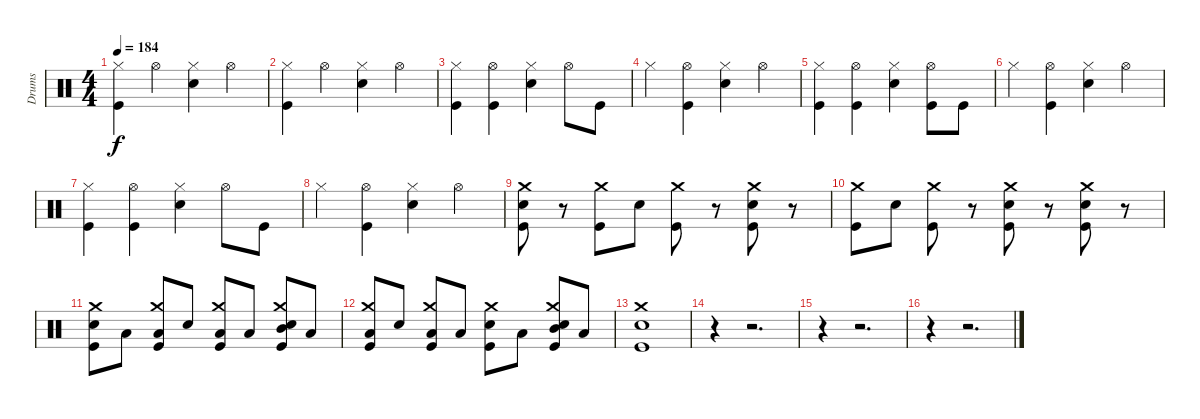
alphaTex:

\track ("Drums" "Drums") {instrument percussion}
\staff {score}
\articulation defaults
\ts (4 4)
\tempo 184
\clef neutral
\ks c
("Hi-Hat (closed)" "Kick (hit)").4{dy f} "Hi-Hat (open)".4 ("Hi-Hat (closed)" "Snare (hit) 2").4 "Hi-Hat (open)".4 |
("Hi-Hat (closed)" "Kick (hit)").4 "Hi-Hat (open)".4 ("Hi-Hat (closed)" "Snare (hit) 2").4 "Hi-Hat (open)".4 |
("Hi-Hat (closed)" "Kick (hit)").4 ("Hi-Hat (open)" "Kick (hit)").4 ("Hi-Hat (closed)" "Snare (hit) 2").4 "Hi-Hat (open)".8 "Kick (hit)".8 |
"Hi-Hat (closed)".4 ("Hi-Hat (open)" "Kick (hit)").4 ("Hi-Hat (closed)" "Snare (hit) 2").4 "Hi-Hat (open)".4 |
("Hi-Hat (closed)" "Kick (hit)").4 ("Hi-Hat (open)" "Kick (hit)").4 ("Hi-Hat (closed)" "Snare (hit) 2").4 ("Hi-Hat (open)" "Kick (hit)").8 "Kick (hit)".8 |
"Hi-Hat (closed)".4 ("Hi-Hat (open)" "Kick (hit)").4 ("Hi-Hat (closed)" "Snare (hit) 2").4 "Hi-Hat (open)".4 |
("Hi-Hat (closed)" "Kick (hit)").4 ("Hi-Hat (open)" "Kick (hit)").4 ("Hi-Hat (closed)" "Snare (hit) 2").4 "Hi-Hat (open)".8 "Kick (hit)".8 |
"Hi-Hat (closed)".4 ("Hi-Hat (open)" "Kick (hit)").4 ("Hi-Hat (closed)" "Snare (hit) 2").4 "Hi-Hat (open)".4 |
("Crash medium (hit)" "Snare (hit) 2" "Kick (hit)").8 r.8 ("Crash medium (hit)" "Kick (hit)").8 "Snare (hit) 2".8 ("Crash medium (hit)" "Kick (hit)").8 r.8 ("Crash medium (hit)" "Snare (hit) 2" "Kick (hit)").8 r.8 |
("Crash medium (hit)" "Kick (hit)").8 "Snare (hit) 2".8 ("Crash medium (hit)" "Kick (hit)").8 r.8 ("Crash medium (hit)" "Snare (hit) 2" "Kick (hit)").8 r.8 ("Crash medium (hit)" "Snare (hit) 2" "Kick (hit)").8 r.8 |
("Crash medium (hit)" "Snare (hit) 2" "Kick (hit)").8 "Low Tom (hit)".8 ("Crash medium (hit)" "Low Tom (hit)" "Kick (hit)").8 "Snare (hit) 2".8 ("Crash medium (hit)" "Low Tom (hit)" "Kick (hit)").8 "Low Tom (hit)".8 ("Crash medium (hit)" "Mid Tom (hit)" "Snare (hit) 2" "Kick (hit)").8 "Low Tom (hit)".8 |
("Crash medium (hit)" "Low Tom (hit)" "Kick (hit)").8 "Snare (hit) 2".8 ("Crash medium (hit)" "Low Tom (hit)" "Kick (hit)").8 "Low Tom (hit)".8 ("Crash medium (hit)" "Snare (hit) 2" "Kick (hit)").8 "Low Tom (hit)".8 ("Crash medium (hit)" "Mid Tom (hit)" "Snare (hit) 2" "Kick (hit)").8 "Low Tom (hit)".8 |
("Crash medium (hit)" "Snare (hit) 2" "Kick (hit)").1 |
r.4 r.2{d} |
r.4 r.2{d} |
r.4 r.2{d}
